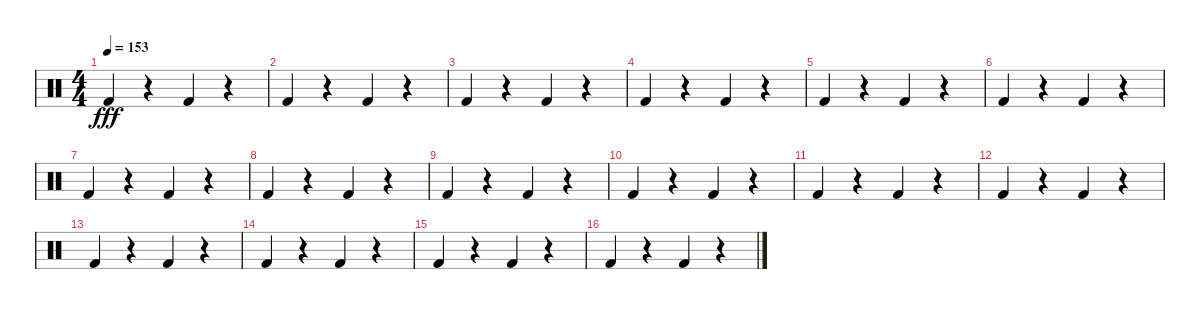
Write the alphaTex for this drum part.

\track "" {instrument percussion}
\staff {score}
\articulation defaults
\ts (4 4)
\tempo 153
\clef neutral
\ks c "Kick (hit) 2".4{dy fff}
r.4 "Kick (hit) 2".4 r.4 |
"Kick (hit) 2".4 r.4 "Kick (hit) 2".4 r.4 |
"Kick (hit) 2".4 r.4 "Kick (hit) 2".4 r.4 |
"Kick (hit) 2".4 r.4 "Kick (hit) 2".4 r.4 |
"Kick (hit) 2".4 r.4 "Kick (hit) 2".4 r.4 |
"Kick (hit) 2".4 r.4 "Kick (hit) 2".4 r.4 |
"Kick (hit) 2".4 r.4 "Kick (hit) 2".4 r.4 |
"Kick (hit) 2".4 r.4 "Kick (hit) 2".4 r.4 |
"Kick (hit) 2".4 r.4 "Kick (hit) 2".4 r.4 |
"Kick (hit) 2".4 r.4 "Kick (hit) 2".4 r.4 |
"Kick (hit) 2".4 r.4 "Kick (hit) 2".4 r.4 |
"Kick (hit) 2".4 r.4 "Kick (hit) 2".4 r.4 |
"Kick (hit) 2".4 r.4 "Kick (hit) 2".4 r.4 |
"Kick (hit) 2".4 r.4 "Kick (hit) 2".4 r.4 |
"Kick (hit) 2".4 r.4 "Kick (hit) 2".4 r.4 |
"Kick (hit) 2".4 r.4 "Kick (hit) 2".4 r.4
